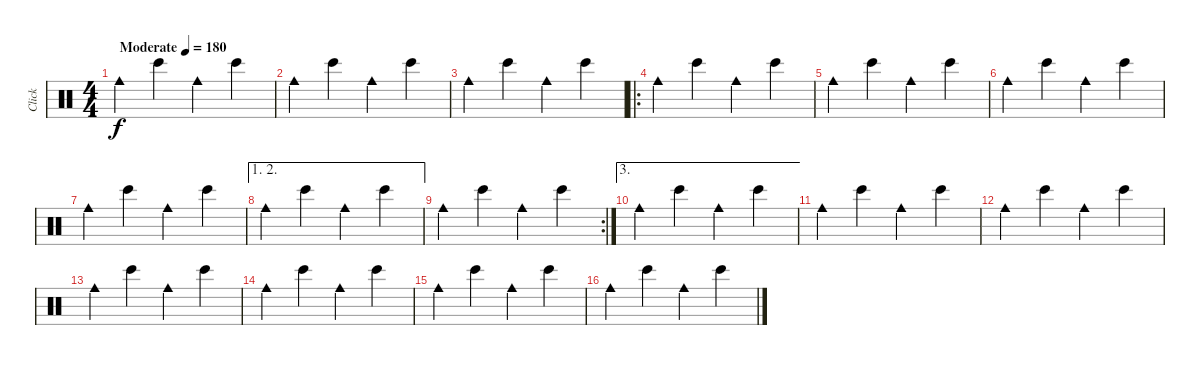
\track ("Click" "Click") {instrument percussion}
\staff {score}
\articulation defaults
\ts (4 4)
\tempo (180 "Moderate")
\clef neutral
\ks c "Cowbell medium (hit)".4{dy f} "Bongo High (hit)".4 "Cowbell medium (hit)".4 "Bongo High (hit)".4
|
"Cowbell medium (hit)".4 "Bongo High (hit)".4 "Cowbell medium (hit)".4 "Bongo High (hit)".4 |
"Cowbell medium (hit)".4 "Bongo High (hit)".4 "Cowbell medium (hit)".4 "Bongo High (hit)".4 |
\ro "Cowbell medium (hit)".4 "Bongo High (hit)".4 "Cowbell medium (hit)".4 "Bongo High (hit)".4
|
"Cowbell medium (hit)".4 "Bongo High (hit)".4 "Cowbell medium (hit)".4 "Bongo High (hit)".4 |
"Cowbell medium (hit)".4 "Bongo High (hit)".4 "Cowbell medium (hit)".4 "Bongo High (hit)".4 |
"Cowbell medium (hit)".4 "Bongo High (hit)".4 "Cowbell medium (hit)".4 "Bongo High (hit)".4 |
\ae (1 2)
"Cowbell medium (hit)".4 "Bongo High (hit)".4 "Cowbell medium (hit)".4 "Bongo High (hit)".4 |
\rc 2 "Cowbell medium (hit)".4 "Bongo High (hit)".4 "Cowbell medium (hit)".4 "Bongo High (hit)".4
|
\ae 3 "Cowbell medium (hit)".4 "Bongo High (hit)".4 "Cowbell medium (hit)".4 "Bongo High (hit)".4
|
"Cowbell medium (hit)".4 "Bongo High (hit)".4 "Cowbell medium (hit)".4 "Bongo High (hit)".4 |
"Cowbell medium (hit)".4 "Bongo High (hit)".4 "Cowbell medium (hit)".4 "Bongo High (hit)".4 |
"Cowbell medium (hit)".4 "Bongo High (hit)".4 "Cowbell medium (hit)".4 "Bongo High (hit)".4 |
"Cowbell medium (hit)".4 "Bongo High (hit)".4 "Cowbell medium (hit)".4 "Bongo High (hit)".4 |
"Cowbell medium (hit)".4 "Bongo High (hit)".4 "Cowbell medium (hit)".4 "Bongo High (hit)".4 |
"Cowbell medium (hit)".4 "Bongo High (hit)".4 "Cowbell medium (hit)".4 "Bongo High (hit)".4
